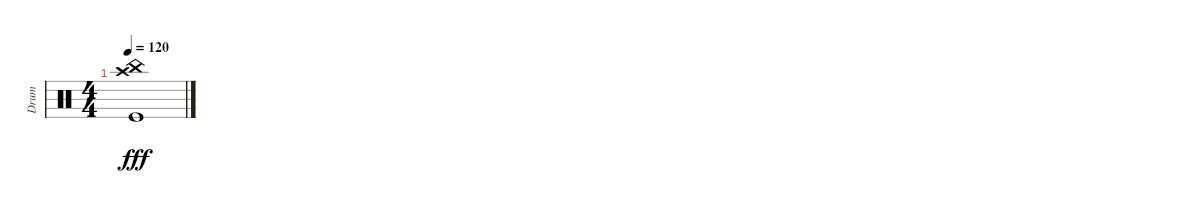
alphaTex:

\track ("Drum" "Drum") {instrument percussion}
\staff {score}
\articulation defaults
\ts (4 4)
\tempo 120
\clef neutral
\ks c
("China (hit)" "Crash high (hit)" "Kick (hit)").1{dy fff}
